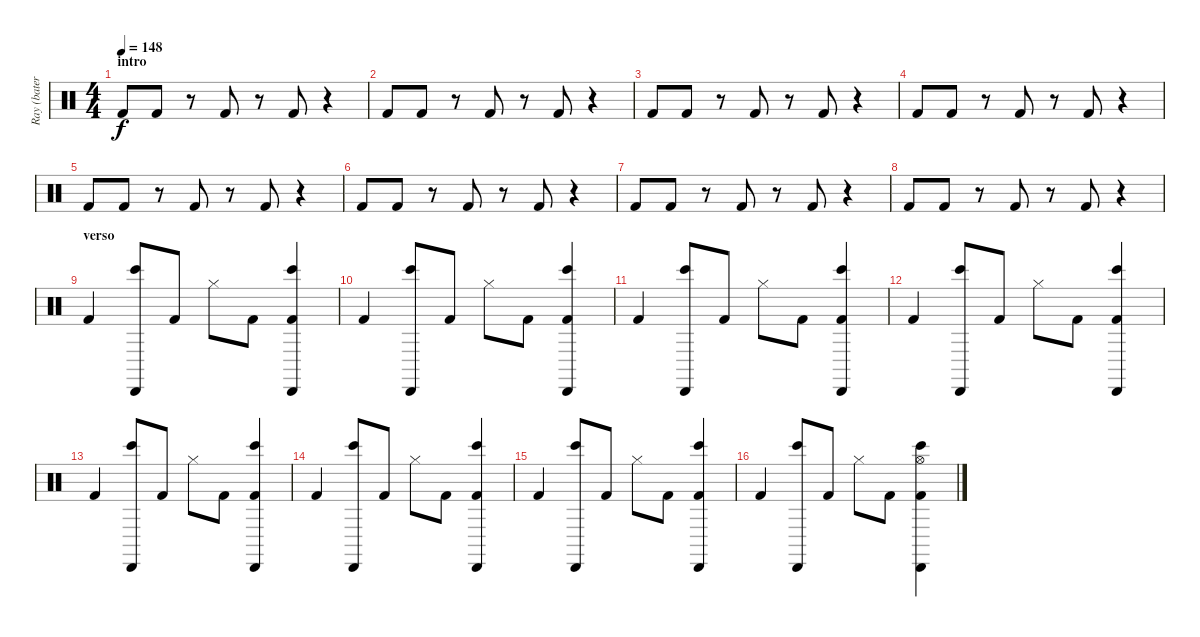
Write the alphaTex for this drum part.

\track ("Ray (batería)" "Ray (bater") {instrument percussion}
\staff {score}
\articulation defaults
\ts (4 4)
\section ("" "intro")
\tempo 148
\clef neutral
\ks c "Kick (hit) 2".8{dy f volume 13} "Kick (hit) 2".8
r.8 "Kick (hit) 2".8 r.8 "Kick (hit) 2".8 r.4 |
"Kick (hit) 2".8 "Kick (hit) 2".8 r.8 "Kick (hit) 2".8 r.8 "Kick (hit) 2".8 r.4 |
"Kick (hit) 2".8 "Kick (hit) 2".8 r.8 "Kick (hit) 2".8 r.8 "Kick (hit) 2".8 r.4 |
"Kick (hit) 2".8 "Kick (hit) 2".8 r.8 "Kick (hit) 2".8 r.8 "Kick (hit) 2".8 r.4 |
"Kick (hit) 2".8 "Kick (hit) 2".8 r.8 "Kick (hit) 2".8 r.8 "Kick (hit) 2".8 r.4 |
"Kick (hit) 2".8 "Kick (hit) 2".8 r.8 "Kick (hit) 2".8 r.8 "Kick (hit) 2".8 r.4 |
"Kick (hit) 2".8 "Kick (hit) 2".8 r.8 "Kick (hit) 2".8 r.8 "Kick (hit) 2".8 r.4 |
"Kick (hit) 2".8 "Kick (hit) 2".8 r.8 "Kick (hit) 2".8 r.8 "Kick (hit) 2".8 r.4 |
\section ("" "verso")
"Kick (hit) 2".4{volume 14} ("Bongo High (hit)" "Cabasa (hit)").8 "Kick (hit) 2".8 "Hi-Hat (closed)".8 "Kick (hit) 2".8 ("Bongo High (hit)" "Cabasa (hit)" "Kick (hit) 2").4 |
"Kick (hit) 2".4 ("Bongo High (hit)" "Cabasa (hit)").8 "Kick (hit) 2".8 "Hi-Hat (closed)".8 "Kick (hit) 2".8 ("Bongo High (hit)" "Cabasa (hit)" "Kick (hit) 2").4 |
"Kick (hit) 2".4 ("Bongo High (hit)" "Cabasa (hit)").8 "Kick (hit) 2".8 "Hi-Hat (closed)".8 "Kick (hit) 2".8 ("Bongo High (hit)" "Cabasa (hit)" "Kick (hit) 2").4 |
"Kick (hit) 2".4 ("Bongo High (hit)" "Cabasa (hit)").8 "Kick (hit) 2".8 "Hi-Hat (closed)".8 "Kick (hit) 2".8 ("Bongo High (hit)" "Cabasa (hit)" "Kick (hit) 2").4 |
"Kick (hit) 2".4 ("Bongo High (hit)" "Cabasa (hit)").8 "Kick (hit) 2".8 "Hi-Hat (closed)".8 "Kick (hit) 2".8 ("Bongo High (hit)" "Cabasa (hit)" "Kick (hit) 2").4 |
"Kick (hit) 2".4 ("Bongo High (hit)" "Cabasa (hit)").8 "Kick (hit) 2".8 "Hi-Hat (closed)".8 "Kick (hit) 2".8 ("Bongo High (hit)" "Cabasa (hit)" "Kick (hit) 2").4 |
"Kick (hit) 2".4 ("Bongo High (hit)" "Cabasa (hit)").8 "Kick (hit) 2".8 "Hi-Hat (closed)".8 "Kick (hit) 2".8 ("Bongo High (hit)" "Cabasa (hit)" "Kick (hit) 2").4 |
"Kick (hit) 2".4 ("Bongo High (hit)" "Cabasa (hit)").8 "Kick (hit) 2".8 "Hi-Hat (closed)".8 "Kick (hit) 2".8 ("Hi-Hat (open)" "Bongo High (hit)" "Cabasa (hit)" "Kick (hit) 2").4
